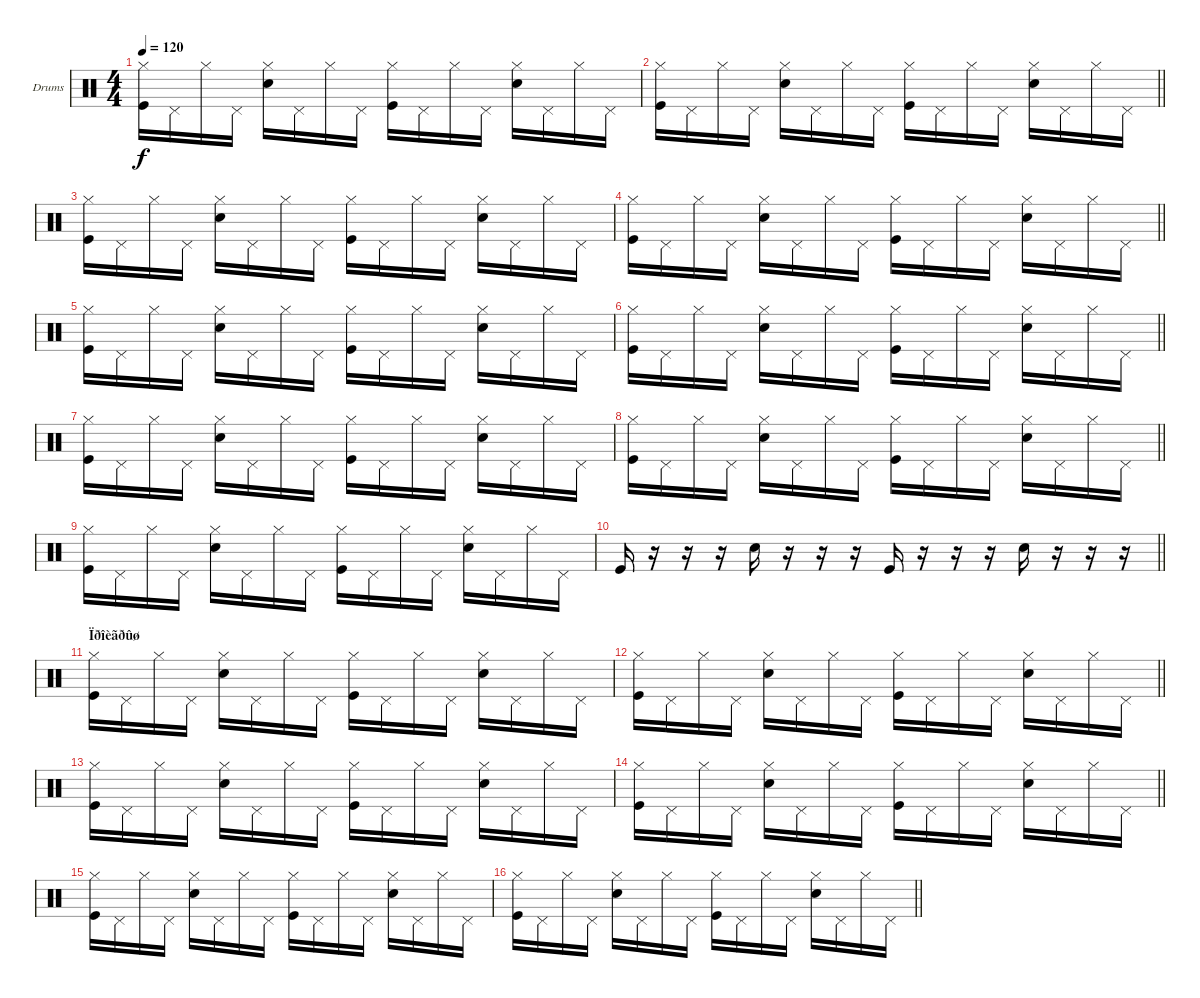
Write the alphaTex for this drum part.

\bracketExtendMode groupsimilarinstruments
\firstSystemTrackNameOrientation horizontal
\otherSystemsTrackNameOrientation horizontal
\track ("Drumkit" "Drums") {instrument percussion}
\staff {score}
\articulation defaults
\ts (4 4)
\tempo 120
\clef neutral
\ks c
("Hi-Hat (closed)" "Kick (hit)").16{dy f} "Pedal Hi-Hat (hit)".16 "Hi-Hat (closed)".16 "Pedal Hi-Hat (hit)".16 ("Hi-Hat (closed)" "Snare (hit) 2").16 "Pedal Hi-Hat (hit)".16 "Hi-Hat (closed)".16 "Pedal Hi-Hat (hit)".16 ("Hi-Hat (closed)" "Kick (hit)").16 "Pedal Hi-Hat (hit)".16 "Hi-Hat (closed)".16 "Pedal Hi-Hat (hit)".16 ("Hi-Hat (closed)" "Snare (hit) 2").16 "Pedal Hi-Hat (hit)".16 "Hi-Hat (closed)".16 "Pedal Hi-Hat (hit)".16 |
\barLineRight lightlight
("Hi-Hat (closed)" "Kick (hit)").16 "Pedal Hi-Hat (hit)".16 "Hi-Hat (closed)".16 "Pedal Hi-Hat (hit)".16 ("Hi-Hat (closed)" "Snare (hit) 2").16 "Pedal Hi-Hat (hit)".16 "Hi-Hat (closed)".16 "Pedal Hi-Hat (hit)".16 ("Hi-Hat (closed)" "Kick (hit)").16 "Pedal Hi-Hat (hit)".16 "Hi-Hat (closed)".16 "Pedal Hi-Hat (hit)".16 ("Hi-Hat (closed)" "Snare (hit) 2").16 "Pedal Hi-Hat (hit)".16 "Hi-Hat (closed)".16 "Pedal Hi-Hat (hit)".16 |
("Hi-Hat (closed)" "Kick (hit)").16 "Pedal Hi-Hat (hit)".16 "Hi-Hat (closed)".16 "Pedal Hi-Hat (hit)".16 ("Hi-Hat (closed)" "Snare (hit) 2").16 "Pedal Hi-Hat (hit)".16 "Hi-Hat (closed)".16 "Pedal Hi-Hat (hit)".16 ("Hi-Hat (closed)" "Kick (hit)").16 "Pedal Hi-Hat (hit)".16 "Hi-Hat (closed)".16 "Pedal Hi-Hat (hit)".16 ("Hi-Hat (closed)" "Snare (hit) 2").16 "Pedal Hi-Hat (hit)".16 "Hi-Hat (closed)".16 "Pedal Hi-Hat (hit)".16 |
\barLineRight lightlight
("Hi-Hat (closed)" "Kick (hit)").16 "Pedal Hi-Hat (hit)".16 "Hi-Hat (closed)".16 "Pedal Hi-Hat (hit)".16 ("Hi-Hat (closed)" "Snare (hit) 2").16 "Pedal Hi-Hat (hit)".16 "Hi-Hat (closed)".16 "Pedal Hi-Hat (hit)".16 ("Hi-Hat (closed)" "Kick (hit)").16 "Pedal Hi-Hat (hit)".16 "Hi-Hat (closed)".16 "Pedal Hi-Hat (hit)".16 ("Hi-Hat (closed)" "Snare (hit) 2").16 "Pedal Hi-Hat (hit)".16 "Hi-Hat (closed)".16 "Pedal Hi-Hat (hit)".16 |
("Hi-Hat (closed)" "Kick (hit)").16 "Pedal Hi-Hat (hit)".16 "Hi-Hat (closed)".16 "Pedal Hi-Hat (hit)".16 ("Hi-Hat (closed)" "Snare (hit) 2").16 "Pedal Hi-Hat (hit)".16 "Hi-Hat (closed)".16 "Pedal Hi-Hat (hit)".16 ("Hi-Hat (closed)" "Kick (hit)").16 "Pedal Hi-Hat (hit)".16 "Hi-Hat (closed)".16 "Pedal Hi-Hat (hit)".16 ("Hi-Hat (closed)" "Snare (hit) 2").16 "Pedal Hi-Hat (hit)".16 "Hi-Hat (closed)".16 "Pedal Hi-Hat (hit)".16 |
\barLineRight lightlight
("Hi-Hat (closed)" "Kick (hit)").16 "Pedal Hi-Hat (hit)".16 "Hi-Hat (closed)".16 "Pedal Hi-Hat (hit)".16 ("Hi-Hat (closed)" "Snare (hit) 2").16 "Pedal Hi-Hat (hit)".16 "Hi-Hat (closed)".16 "Pedal Hi-Hat (hit)".16 ("Hi-Hat (closed)" "Kick (hit)").16 "Pedal Hi-Hat (hit)".16 "Hi-Hat (closed)".16 "Pedal Hi-Hat (hit)".16 ("Hi-Hat (closed)" "Snare (hit) 2").16 "Pedal Hi-Hat (hit)".16 "Hi-Hat (closed)".16 "Pedal Hi-Hat (hit)".16 |
("Hi-Hat (closed)" "Kick (hit)").16 "Pedal Hi-Hat (hit)".16 "Hi-Hat (closed)".16 "Pedal Hi-Hat (hit)".16 ("Hi-Hat (closed)" "Snare (hit) 2").16 "Pedal Hi-Hat (hit)".16 "Hi-Hat (closed)".16 "Pedal Hi-Hat (hit)".16 ("Hi-Hat (closed)" "Kick (hit)").16 "Pedal Hi-Hat (hit)".16 "Hi-Hat (closed)".16 "Pedal Hi-Hat (hit)".16 ("Hi-Hat (closed)" "Snare (hit) 2").16 "Pedal Hi-Hat (hit)".16 "Hi-Hat (closed)".16 "Pedal Hi-Hat (hit)".16 |
\barLineRight lightlight
("Hi-Hat (closed)" "Kick (hit)").16 "Pedal Hi-Hat (hit)".16 "Hi-Hat (closed)".16 "Pedal Hi-Hat (hit)".16 ("Hi-Hat (closed)" "Snare (hit) 2").16 "Pedal Hi-Hat (hit)".16 "Hi-Hat (closed)".16 "Pedal Hi-Hat (hit)".16 ("Hi-Hat (closed)" "Kick (hit)").16 "Pedal Hi-Hat (hit)".16 "Hi-Hat (closed)".16 "Pedal Hi-Hat (hit)".16 ("Hi-Hat (closed)" "Snare (hit) 2").16 "Pedal Hi-Hat (hit)".16 "Hi-Hat (closed)".16 "Pedal Hi-Hat (hit)".16 |
("Hi-Hat (closed)" "Kick (hit)").16 "Pedal Hi-Hat (hit)".16 "Hi-Hat (closed)".16 "Pedal Hi-Hat (hit)".16 ("Hi-Hat (closed)" "Snare (hit) 2").16 "Pedal Hi-Hat (hit)".16 "Hi-Hat (closed)".16 "Pedal Hi-Hat (hit)".16 ("Hi-Hat (closed)" "Kick (hit)").16 "Pedal Hi-Hat (hit)".16 "Hi-Hat (closed)".16 "Pedal Hi-Hat (hit)".16 ("Hi-Hat (closed)" "Snare (hit) 2").16 "Pedal Hi-Hat (hit)".16 "Hi-Hat (closed)".16 "Pedal Hi-Hat (hit)".16 |
\barLineRight lightlight "Kick (hit)".16
r.16 r.16 r.16 "Snare (hit) 2".16 r.16 r.16 r.16 "Kick (hit)".16 r.16 r.16 r.16 "Snare (hit) 2".16 r.16 r.16 r.16 |
\section ("" "Ïðîèãðûø")
("Hi-Hat (closed)" "Kick (hit)").16 "Pedal Hi-Hat (hit)".16 "Hi-Hat (closed)".16 "Pedal Hi-Hat (hit)".16 ("Hi-Hat (closed)" "Snare (hit) 2").16 "Pedal Hi-Hat (hit)".16 "Hi-Hat (closed)".16 "Pedal Hi-Hat (hit)".16 ("Hi-Hat (closed)" "Kick (hit)").16 "Pedal Hi-Hat (hit)".16 "Hi-Hat (closed)".16 "Pedal Hi-Hat (hit)".16 ("Hi-Hat (closed)" "Snare (hit) 2").16 "Pedal Hi-Hat (hit)".16 "Hi-Hat (closed)".16 "Pedal Hi-Hat (hit)".16 |
\barLineRight lightlight
("Hi-Hat (closed)" "Kick (hit)").16 "Pedal Hi-Hat (hit)".16 "Hi-Hat (closed)".16 "Pedal Hi-Hat (hit)".16 ("Hi-Hat (closed)" "Snare (hit) 2").16 "Pedal Hi-Hat (hit)".16 "Hi-Hat (closed)".16 "Pedal Hi-Hat (hit)".16 ("Hi-Hat (closed)" "Kick (hit)").16 "Pedal Hi-Hat (hit)".16 "Hi-Hat (closed)".16 "Pedal Hi-Hat (hit)".16 ("Hi-Hat (closed)" "Snare (hit) 2").16 "Pedal Hi-Hat (hit)".16 "Hi-Hat (closed)".16 "Pedal Hi-Hat (hit)".16 |
("Hi-Hat (closed)" "Kick (hit)").16 "Pedal Hi-Hat (hit)".16 "Hi-Hat (closed)".16 "Pedal Hi-Hat (hit)".16 ("Hi-Hat (closed)" "Snare (hit) 2").16 "Pedal Hi-Hat (hit)".16 "Hi-Hat (closed)".16 "Pedal Hi-Hat (hit)".16 ("Hi-Hat (closed)" "Kick (hit)").16 "Pedal Hi-Hat (hit)".16 "Hi-Hat (closed)".16 "Pedal Hi-Hat (hit)".16 ("Hi-Hat (closed)" "Snare (hit) 2").16 "Pedal Hi-Hat (hit)".16 "Hi-Hat (closed)".16 "Pedal Hi-Hat (hit)".16 |
\barLineRight lightlight
("Hi-Hat (closed)" "Kick (hit)").16 "Pedal Hi-Hat (hit)".16 "Hi-Hat (closed)".16 "Pedal Hi-Hat (hit)".16 ("Hi-Hat (closed)" "Snare (hit) 2").16 "Pedal Hi-Hat (hit)".16 "Hi-Hat (closed)".16 "Pedal Hi-Hat (hit)".16 ("Hi-Hat (closed)" "Kick (hit)").16 "Pedal Hi-Hat (hit)".16 "Hi-Hat (closed)".16 "Pedal Hi-Hat (hit)".16 ("Hi-Hat (closed)" "Snare (hit) 2").16 "Pedal Hi-Hat (hit)".16 "Hi-Hat (closed)".16 "Pedal Hi-Hat (hit)".16 |
("Hi-Hat (closed)" "Kick (hit)").16 "Pedal Hi-Hat (hit)".16 "Hi-Hat (closed)".16 "Pedal Hi-Hat (hit)".16 ("Hi-Hat (closed)" "Snare (hit) 2").16 "Pedal Hi-Hat (hit)".16 "Hi-Hat (closed)".16 "Pedal Hi-Hat (hit)".16 ("Hi-Hat (closed)" "Kick (hit)").16 "Pedal Hi-Hat (hit)".16 "Hi-Hat (closed)".16 "Pedal Hi-Hat (hit)".16 ("Hi-Hat (closed)" "Snare (hit) 2").16 "Pedal Hi-Hat (hit)".16 "Hi-Hat (closed)".16 "Pedal Hi-Hat (hit)".16 |
\barLineRight lightlight
("Hi-Hat (closed)" "Kick (hit)").16 "Pedal Hi-Hat (hit)".16 "Hi-Hat (closed)".16 "Pedal Hi-Hat (hit)".16 ("Hi-Hat (closed)" "Snare (hit) 2").16 "Pedal Hi-Hat (hit)".16 "Hi-Hat (closed)".16 "Pedal Hi-Hat (hit)".16 ("Hi-Hat (closed)" "Kick (hit)").16 "Pedal Hi-Hat (hit)".16 "Hi-Hat (closed)".16 "Pedal Hi-Hat (hit)".16 ("Hi-Hat (closed)" "Snare (hit) 2").16 "Pedal Hi-Hat (hit)".16 "Hi-Hat (closed)".16 "Pedal Hi-Hat (hit)".16
